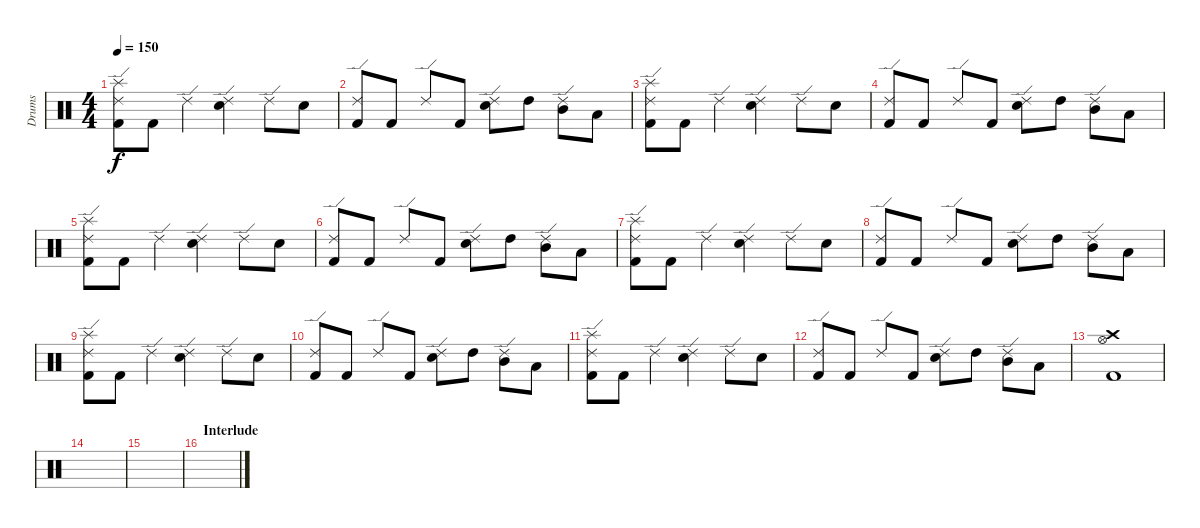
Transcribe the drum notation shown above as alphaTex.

\track ("Drums" "Drums") {instrument percussion}
\staff {score}
\articulation defaults
\ts (4 4)
\tempo 150
\clef neutral
\ks c
("Splash (hit)" "Ride (edge) 2" "Kick (hit) 2").8{dy f} "Kick (hit) 2".8 "Ride (edge) 2".4 ("Ride (edge) 2" "Electric Snare (hit)").4 "Ride (edge) 2".8 "Electric Snare (hit)".8 |
("Ride (edge) 2" "Kick (hit) 2").8 "Kick (hit) 2".8 "Ride (edge) 2".8 "Kick (hit) 2".8 ("Ride (edge) 2" "Electric Snare (hit)").8 "High Tom (hit)".8 ("Ride (edge) 2" "Mid Tom (hit)").8 "Low Tom (hit)".8 |
("Splash (hit)" "Ride (edge) 2" "Kick (hit) 2").8 "Kick (hit) 2".8 "Ride (edge) 2".4 ("Ride (edge) 2" "Electric Snare (hit)").4 "Ride (edge) 2".8 "Electric Snare (hit)".8 |
("Ride (edge) 2" "Kick (hit) 2").8 "Kick (hit) 2".8 "Ride (edge) 2".8 "Kick (hit) 2".8 ("Ride (edge) 2" "Electric Snare (hit)").8 "High Tom (hit)".8 ("Ride (edge) 2" "Mid Tom (hit)").8 "Low Tom (hit)".8 |
("Splash (hit)" "Ride (edge) 2" "Kick (hit) 2").8 "Kick (hit) 2".8 "Ride (edge) 2".4 ("Ride (edge) 2" "Electric Snare (hit)").4 "Ride (edge) 2".8 "Electric Snare (hit)".8 |
("Ride (edge) 2" "Kick (hit) 2").8 "Kick (hit) 2".8 "Ride (edge) 2".8 "Kick (hit) 2".8 ("Ride (edge) 2" "Electric Snare (hit)").8 "High Tom (hit)".8 ("Ride (edge) 2" "Mid Tom (hit)").8 "Low Tom (hit)".8 |
("Splash (hit)" "Ride (edge) 2" "Kick (hit) 2").8 "Kick (hit) 2".8 "Ride (edge) 2".4 ("Ride (edge) 2" "Electric Snare (hit)").4 "Ride (edge) 2".8 "Electric Snare (hit)".8 |
("Ride (edge) 2" "Kick (hit) 2").8 "Kick (hit) 2".8 "Ride (edge) 2".8 "Kick (hit) 2".8 ("Ride (edge) 2" "Electric Snare (hit)").8 "High Tom (hit)".8 ("Ride (edge) 2" "Mid Tom (hit)").8 "Low Tom (hit)".8 |
("Splash (hit)" "Ride (edge) 2" "Kick (hit) 2").8 "Kick (hit) 2".8 "Ride (edge) 2".4 ("Ride (edge) 2" "Electric Snare (hit)").4 "Ride (edge) 2".8 "Electric Snare (hit)".8 |
("Ride (edge) 2" "Kick (hit) 2").8 "Kick (hit) 2".8 "Ride (edge) 2".8 "Kick (hit) 2".8 ("Ride (edge) 2" "Electric Snare (hit)").8 "High Tom (hit)".8 ("Ride (edge) 2" "Mid Tom (hit)").8 "Low Tom (hit)".8 |
("Splash (hit)" "Ride (edge) 2" "Kick (hit) 2").8 "Kick (hit) 2".8 "Ride (edge) 2".4 ("Ride (edge) 2" "Electric Snare (hit)").4 "Ride (edge) 2".8 "Electric Snare (hit)".8 |
("Ride (edge) 2" "Kick (hit) 2").8 "Kick (hit) 2".8 "Ride (edge) 2".8 "Kick (hit) 2".8 ("Ride (edge) 2" "Electric Snare (hit)").8 "High Tom (hit)".8 ("Ride (edge) 2" "Mid Tom (hit)").8 "Low Tom (hit)".8 |
("Crash high (hit)" "Hi-Hat (open)" "Kick (hit) 2").1 |
|
|
\section ("" "Interlude")
